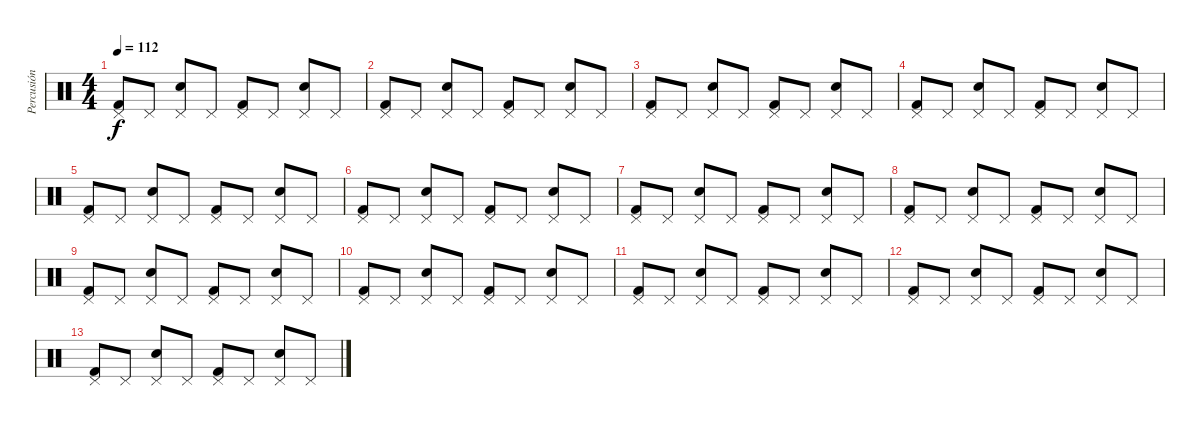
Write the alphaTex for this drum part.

\track ("Percusión" "Percusión") {instrument percussion}
\staff {score}
\articulation defaults
\ts (4 4)
\tempo 112
\clef neutral
\ks c
("Pedal Hi-Hat (hit)" "Kick (hit) 2").8{dy f} "Pedal Hi-Hat (hit)".8 ("Snare (hit) 2" "Pedal Hi-Hat (hit)").8 "Pedal Hi-Hat (hit)".8 ("Pedal Hi-Hat (hit)" "Kick (hit) 2").8 "Pedal Hi-Hat (hit)".8 ("Snare (hit) 2" "Pedal Hi-Hat (hit)").8 "Pedal Hi-Hat (hit)".8 |
("Pedal Hi-Hat (hit)" "Kick (hit) 2").8 "Pedal Hi-Hat (hit)".8 ("Snare (hit) 2" "Pedal Hi-Hat (hit)").8 "Pedal Hi-Hat (hit)".8 ("Pedal Hi-Hat (hit)" "Kick (hit) 2").8 "Pedal Hi-Hat (hit)".8 ("Snare (hit) 2" "Pedal Hi-Hat (hit)").8 "Pedal Hi-Hat (hit)".8 |
("Pedal Hi-Hat (hit)" "Kick (hit) 2").8 "Pedal Hi-Hat (hit)".8 ("Snare (hit) 2" "Pedal Hi-Hat (hit)").8 "Pedal Hi-Hat (hit)".8 ("Pedal Hi-Hat (hit)" "Kick (hit) 2").8 "Pedal Hi-Hat (hit)".8 ("Snare (hit) 2" "Pedal Hi-Hat (hit)").8 "Pedal Hi-Hat (hit)".8 |
("Pedal Hi-Hat (hit)" "Kick (hit) 2").8 "Pedal Hi-Hat (hit)".8 ("Snare (hit) 2" "Pedal Hi-Hat (hit)").8 "Pedal Hi-Hat (hit)".8 ("Pedal Hi-Hat (hit)" "Kick (hit) 2").8 "Pedal Hi-Hat (hit)".8 ("Snare (hit) 2" "Pedal Hi-Hat (hit)").8 "Pedal Hi-Hat (hit)".8 |
("Pedal Hi-Hat (hit)" "Kick (hit) 2").8 "Pedal Hi-Hat (hit)".8 ("Snare (hit) 2" "Pedal Hi-Hat (hit)").8 "Pedal Hi-Hat (hit)".8 ("Pedal Hi-Hat (hit)" "Kick (hit) 2").8 "Pedal Hi-Hat (hit)".8 ("Snare (hit) 2" "Pedal Hi-Hat (hit)").8 "Pedal Hi-Hat (hit)".8 |
("Pedal Hi-Hat (hit)" "Kick (hit) 2").8 "Pedal Hi-Hat (hit)".8 ("Snare (hit) 2" "Pedal Hi-Hat (hit)").8 "Pedal Hi-Hat (hit)".8 ("Pedal Hi-Hat (hit)" "Kick (hit) 2").8 "Pedal Hi-Hat (hit)".8 ("Snare (hit) 2" "Pedal Hi-Hat (hit)").8 "Pedal Hi-Hat (hit)".8 |
("Pedal Hi-Hat (hit)" "Kick (hit) 2").8 "Pedal Hi-Hat (hit)".8 ("Snare (hit) 2" "Pedal Hi-Hat (hit)").8 "Pedal Hi-Hat (hit)".8 ("Pedal Hi-Hat (hit)" "Kick (hit) 2").8 "Pedal Hi-Hat (hit)".8 ("Snare (hit) 2" "Pedal Hi-Hat (hit)").8 "Pedal Hi-Hat (hit)".8 |
("Pedal Hi-Hat (hit)" "Kick (hit) 2").8 "Pedal Hi-Hat (hit)".8 ("Snare (hit) 2" "Pedal Hi-Hat (hit)").8 "Pedal Hi-Hat (hit)".8 ("Pedal Hi-Hat (hit)" "Kick (hit) 2").8 "Pedal Hi-Hat (hit)".8 ("Snare (hit) 2" "Pedal Hi-Hat (hit)").8 "Pedal Hi-Hat (hit)".8 |
("Pedal Hi-Hat (hit)" "Kick (hit) 2").8 "Pedal Hi-Hat (hit)".8 ("Snare (hit) 2" "Pedal Hi-Hat (hit)").8 "Pedal Hi-Hat (hit)".8 ("Pedal Hi-Hat (hit)" "Kick (hit) 2").8 "Pedal Hi-Hat (hit)".8 ("Snare (hit) 2" "Pedal Hi-Hat (hit)").8 "Pedal Hi-Hat (hit)".8 |
("Pedal Hi-Hat (hit)" "Kick (hit) 2").8 "Pedal Hi-Hat (hit)".8 ("Snare (hit) 2" "Pedal Hi-Hat (hit)").8 "Pedal Hi-Hat (hit)".8 ("Pedal Hi-Hat (hit)" "Kick (hit) 2").8 "Pedal Hi-Hat (hit)".8 ("Snare (hit) 2" "Pedal Hi-Hat (hit)").8 "Pedal Hi-Hat (hit)".8 |
("Pedal Hi-Hat (hit)" "Kick (hit) 2").8 "Pedal Hi-Hat (hit)".8 ("Snare (hit) 2" "Pedal Hi-Hat (hit)").8 "Pedal Hi-Hat (hit)".8 ("Pedal Hi-Hat (hit)" "Kick (hit) 2").8 "Pedal Hi-Hat (hit)".8 ("Snare (hit) 2" "Pedal Hi-Hat (hit)").8 "Pedal Hi-Hat (hit)".8 |
("Pedal Hi-Hat (hit)" "Kick (hit) 2").8 "Pedal Hi-Hat (hit)".8 ("Snare (hit) 2" "Pedal Hi-Hat (hit)").8 "Pedal Hi-Hat (hit)".8 ("Pedal Hi-Hat (hit)" "Kick (hit) 2").8 "Pedal Hi-Hat (hit)".8 ("Snare (hit) 2" "Pedal Hi-Hat (hit)").8 "Pedal Hi-Hat (hit)".8 |
("Pedal Hi-Hat (hit)" "Kick (hit) 2").8 "Pedal Hi-Hat (hit)".8 ("Snare (hit) 2" "Pedal Hi-Hat (hit)").8 "Pedal Hi-Hat (hit)".8 ("Pedal Hi-Hat (hit)" "Kick (hit) 2").8 "Pedal Hi-Hat (hit)".8 ("Snare (hit) 2" "Pedal Hi-Hat (hit)").8 "Pedal Hi-Hat (hit)".8
